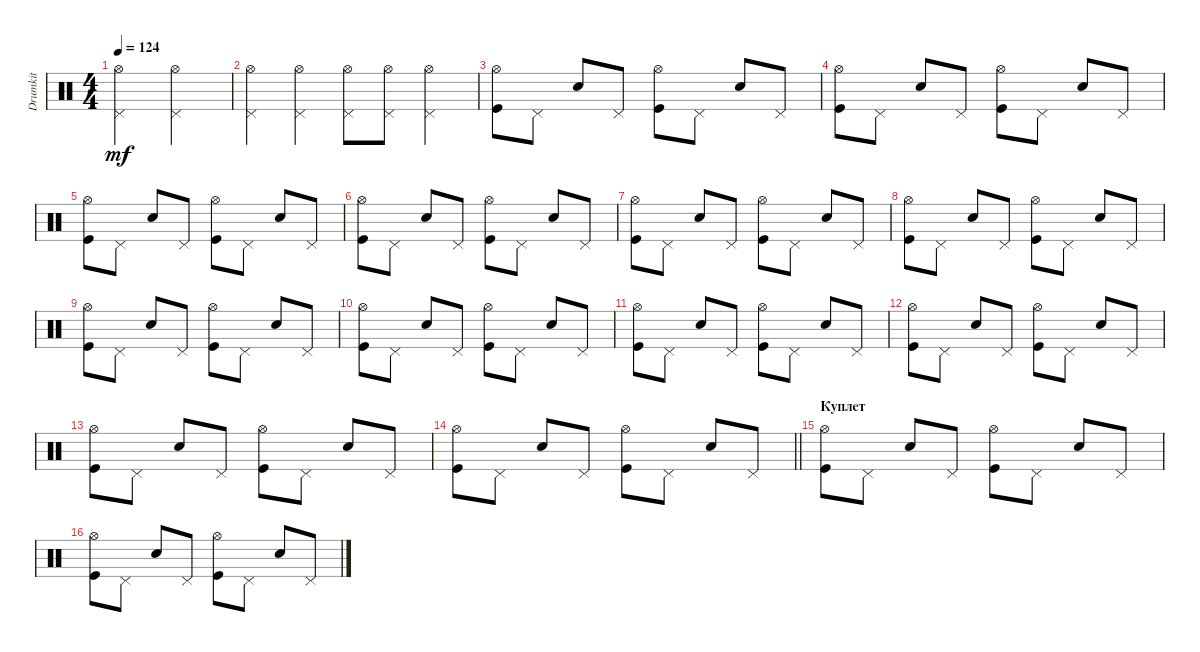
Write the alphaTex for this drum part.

\track ("Drumkit" "Drumkit") {instrument percussion}
\staff {score}
\articulation defaults
\ts (4 4)
\tempo 124
\clef neutral
\ks c
("Hi-Hat (open)" "Pedal Hi-Hat (hit)").2{dy mf} ("Hi-Hat (open)" "Pedal Hi-Hat (hit)").2 |
("Hi-Hat (open)" "Pedal Hi-Hat (hit)").4 ("Hi-Hat (open)" "Pedal Hi-Hat (hit)").4 ("Hi-Hat (open)" "Pedal Hi-Hat (hit)").8 ("Hi-Hat (open)" "Pedal Hi-Hat (hit)").8 ("Hi-Hat (open)" "Pedal Hi-Hat (hit)").4 |
("Kick (hit)" "Hi-Hat (open)").8 "Pedal Hi-Hat (hit)".8 "Snare (hit) 2".8 "Pedal Hi-Hat (hit)".8 ("Kick (hit)" "Hi-Hat (open)").8 "Pedal Hi-Hat (hit)".8 "Snare (hit) 2".8 "Pedal Hi-Hat (hit)".8 |
("Kick (hit)" "Hi-Hat (open)").8 "Pedal Hi-Hat (hit)".8 "Snare (hit) 2".8 "Pedal Hi-Hat (hit)".8 ("Kick (hit)" "Hi-Hat (open)").8 "Pedal Hi-Hat (hit)".8 "Snare (hit) 2".8 "Pedal Hi-Hat (hit)".8 |
("Kick (hit)" "Hi-Hat (open)").8 "Pedal Hi-Hat (hit)".8 "Snare (hit) 2".8 "Pedal Hi-Hat (hit)".8 ("Kick (hit)" "Hi-Hat (open)").8 "Pedal Hi-Hat (hit)".8 "Snare (hit) 2".8 "Pedal Hi-Hat (hit)".8 |
("Kick (hit)" "Hi-Hat (open)").8 "Pedal Hi-Hat (hit)".8 "Snare (hit) 2".8 "Pedal Hi-Hat (hit)".8 ("Kick (hit)" "Hi-Hat (open)").8 "Pedal Hi-Hat (hit)".8 "Snare (hit) 2".8 "Pedal Hi-Hat (hit)".8 |
("Kick (hit)" "Hi-Hat (open)").8 "Pedal Hi-Hat (hit)".8 "Snare (hit) 2".8 "Pedal Hi-Hat (hit)".8 ("Kick (hit)" "Hi-Hat (open)").8 "Pedal Hi-Hat (hit)".8 "Snare (hit) 2".8 "Pedal Hi-Hat (hit)".8 |
("Kick (hit)" "Hi-Hat (open)").8 "Pedal Hi-Hat (hit)".8 "Snare (hit) 2".8 "Pedal Hi-Hat (hit)".8 ("Kick (hit)" "Hi-Hat (open)").8 "Pedal Hi-Hat (hit)".8 "Snare (hit) 2".8 "Pedal Hi-Hat (hit)".8 |
("Kick (hit)" "Hi-Hat (open)").8 "Pedal Hi-Hat (hit)".8 "Snare (hit) 2".8 "Pedal Hi-Hat (hit)".8 ("Kick (hit)" "Hi-Hat (open)").8 "Pedal Hi-Hat (hit)".8 "Snare (hit) 2".8 "Pedal Hi-Hat (hit)".8 |
("Kick (hit)" "Hi-Hat (open)").8 "Pedal Hi-Hat (hit)".8 "Snare (hit) 2".8 "Pedal Hi-Hat (hit)".8 ("Kick (hit)" "Hi-Hat (open)").8 "Pedal Hi-Hat (hit)".8 "Snare (hit) 2".8 "Pedal Hi-Hat (hit)".8 |
("Kick (hit)" "Hi-Hat (open)").8 "Pedal Hi-Hat (hit)".8 "Snare (hit) 2".8 "Pedal Hi-Hat (hit)".8 ("Kick (hit)" "Hi-Hat (open)").8 "Pedal Hi-Hat (hit)".8 "Snare (hit) 2".8 "Pedal Hi-Hat (hit)".8 |
("Kick (hit)" "Hi-Hat (open)").8 "Pedal Hi-Hat (hit)".8 "Snare (hit) 2".8 "Pedal Hi-Hat (hit)".8 ("Kick (hit)" "Hi-Hat (open)").8 "Pedal Hi-Hat (hit)".8 "Snare (hit) 2".8 "Pedal Hi-Hat (hit)".8 |
("Kick (hit)" "Hi-Hat (open)").8 "Pedal Hi-Hat (hit)".8 "Snare (hit) 2".8 "Pedal Hi-Hat (hit)".8 ("Kick (hit)" "Hi-Hat (open)").8 "Pedal Hi-Hat (hit)".8 "Snare (hit) 2".8 "Pedal Hi-Hat (hit)".8 |
\barLineRight lightlight
("Kick (hit)" "Hi-Hat (open)").8 "Pedal Hi-Hat (hit)".8 "Snare (hit) 2".8 "Pedal Hi-Hat (hit)".8 ("Kick (hit)" "Hi-Hat (open)").8 "Pedal Hi-Hat (hit)".8 "Snare (hit) 2".8 "Pedal Hi-Hat (hit)".8 |
\section ("" "Куплет")
("Kick (hit)" "Hi-Hat (open)").8 "Pedal Hi-Hat (hit)".8 "Snare (hit) 2".8 "Pedal Hi-Hat (hit)".8 ("Kick (hit)" "Hi-Hat (open)").8 "Pedal Hi-Hat (hit)".8 "Snare (hit) 2".8 "Pedal Hi-Hat (hit)".8 |
("Kick (hit)" "Hi-Hat (open)").8 "Pedal Hi-Hat (hit)".8 "Snare (hit) 2".8 "Pedal Hi-Hat (hit)".8 ("Kick (hit)" "Hi-Hat (open)").8 "Pedal Hi-Hat (hit)".8 "Snare (hit) 2".8 "Pedal Hi-Hat (hit)".8
